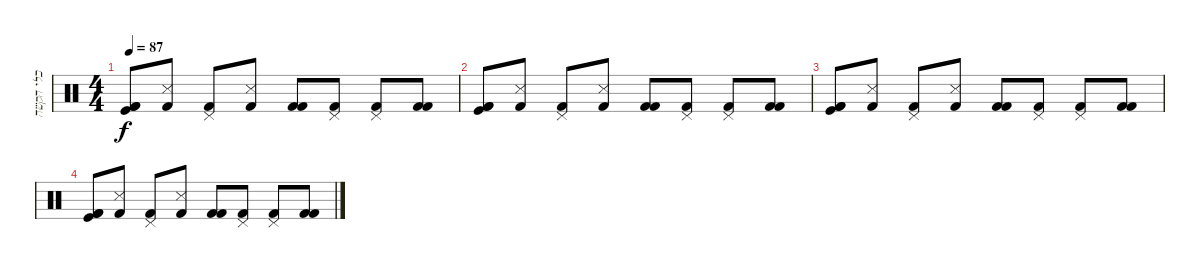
\track ("כלי הקשה" "כלי הקשה") {instrument percussion}
\staff {score}
\articulation defaults
\ts (4 4)
\tempo 87
\clef neutral
\ks c
("Kick (hit) 2" "Kick (hit)" "Kick (hit) 2").8{dy f} ("Snare (side stick) 3" "Kick (hit) 2").8 ("Pedal Hi-Hat (hit)" "Kick (hit) 2").8 ("Snare (side stick) 3" "Kick (hit) 2").8 ("Kick (hit) 2" "Kick (hit) 2").8 ("Pedal Hi-Hat (hit)" "Kick (hit) 2").8 ("Pedal Hi-Hat (hit)" "Kick (hit) 2").8 ("Kick (hit) 2" "Kick (hit) 2").8 |
("Kick (hit) 2" "Kick (hit)" "Kick (hit) 2").8 ("Snare (side stick) 3" "Kick (hit) 2").8 ("Pedal Hi-Hat (hit)" "Kick (hit) 2").8 ("Snare (side stick) 3" "Kick (hit) 2").8 ("Kick (hit) 2" "Kick (hit) 2").8 ("Pedal Hi-Hat (hit)" "Kick (hit) 2").8 ("Pedal Hi-Hat (hit)" "Kick (hit) 2").8 ("Kick (hit) 2" "Kick (hit) 2").8 |
("Kick (hit) 2" "Kick (hit)" "Kick (hit) 2").8 ("Snare (side stick) 3" "Kick (hit) 2").8 ("Pedal Hi-Hat (hit)" "Kick (hit) 2").8 ("Snare (side stick) 3" "Kick (hit) 2").8 ("Kick (hit) 2" "Kick (hit) 2").8 ("Pedal Hi-Hat (hit)" "Kick (hit) 2").8 ("Pedal Hi-Hat (hit)" "Kick (hit) 2").8 ("Kick (hit) 2" "Kick (hit) 2").8 |
("Kick (hit) 2" "Kick (hit)" "Kick (hit) 2").8 ("Snare (side stick) 3" "Kick (hit) 2").8 ("Pedal Hi-Hat (hit)" "Kick (hit) 2").8 ("Snare (side stick) 3" "Kick (hit) 2").8 ("Kick (hit) 2" "Kick (hit) 2").8 ("Pedal Hi-Hat (hit)" "Kick (hit) 2").8 ("Pedal Hi-Hat (hit)" "Kick (hit) 2").8 ("Kick (hit) 2" "Kick (hit) 2").8
